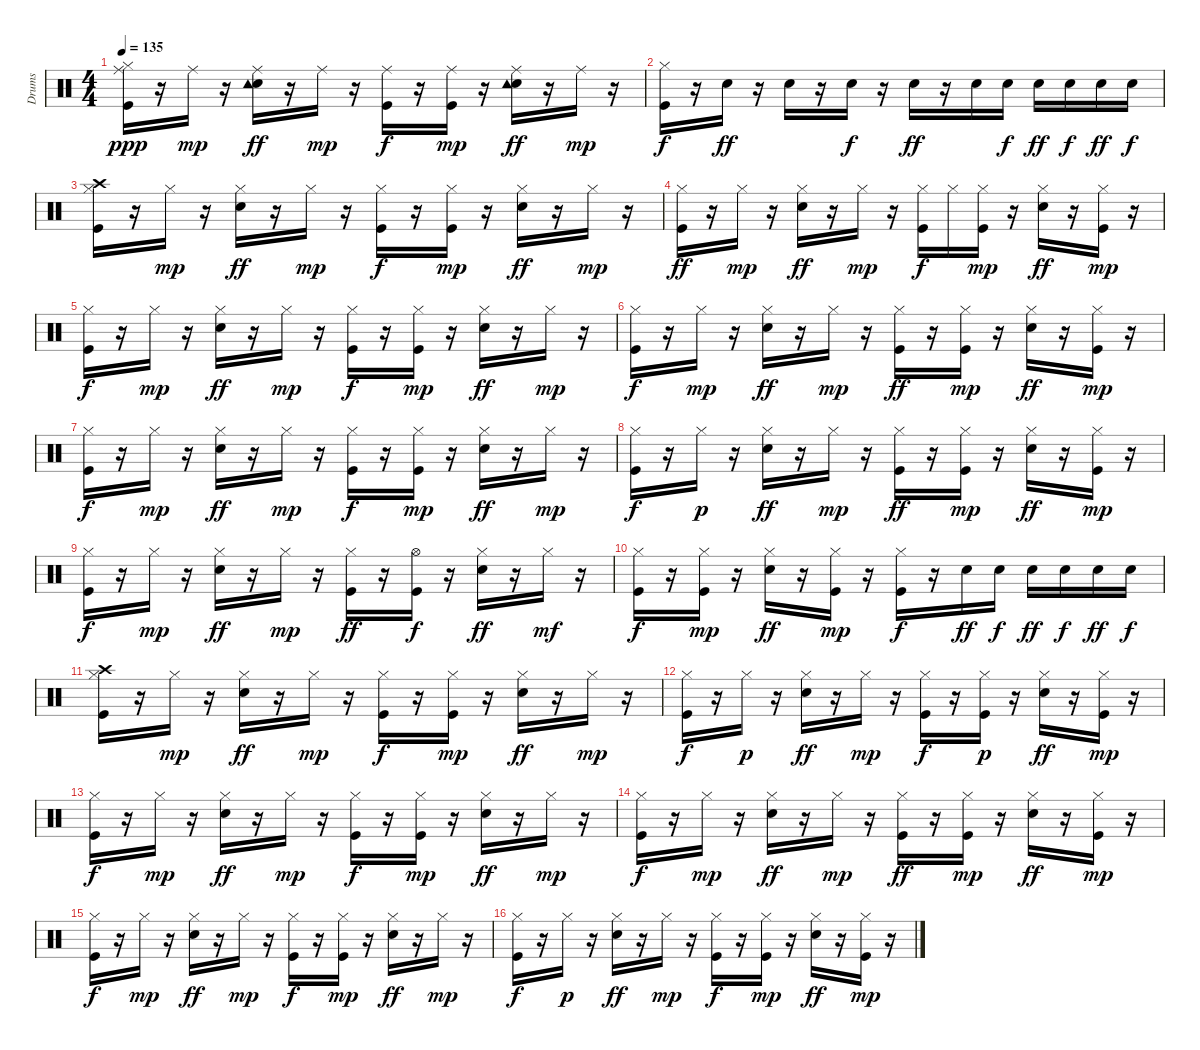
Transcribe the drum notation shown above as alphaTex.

\track ("Drums   " "Drums   ") {instrument percussion}
\staff {score}
\articulation defaults
\ts (4 4)
\tempo 135
\clef neutral
\ks c
("Kick (hit)" "Hi-Hat (closed)" "Ride (middle)").16{dy ppp} r.16 "Ride (middle)".16{dy mp} r.16 ("Snare (hit) 2" "Ride (middle)" "Tambourine (hit)").16{dy ff} r.16 "Ride (middle)".16{dy mp} r.16 ("Kick (hit)" "Ride (middle)").16{dy f} r.16 ("Kick (hit)" "Ride (middle)").16{dy mp} r.16 ("Snare (hit) 2" "Ride (middle)" "Tambourine (hit)").16{dy ff} r.16 "Ride (middle)".16{dy mp} r.16 |
("Kick (hit)" "Hi-Hat (closed)").16{dy f} r.16 "Snare (hit) 2".16{dy ff} r.16 "Snare (hit) 2".16 r.16 "Snare (hit) 2".16{dy f} r.16 "Snare (hit) 2".16{dy ff} r.16 "Snare (hit) 2".16 "Snare (hit) 2".16{dy f} "Snare (hit) 2".16{dy ff} "Snare (hit) 2".16{dy f} "Snare (hit) 2".16{dy ff} "Snare (hit) 2".16{dy f} |
("Kick (hit)" "Hi-Hat (closed)" "Crash high (hit)").16 r.16 "Hi-Hat (closed)".16{dy mp} r.16 ("Snare (hit) 2" "Hi-Hat (closed)").16{dy ff} r.16 "Hi-Hat (closed)".16{dy mp} r.16 ("Kick (hit)" "Hi-Hat (closed)").16{dy f} r.16 ("Kick (hit)" "Hi-Hat (closed)").16{dy mp} r.16 ("Snare (hit) 2" "Hi-Hat (closed)").16{dy ff} r.16 "Hi-Hat (closed)".16{dy mp} r.16 |
("Kick (hit)" "Hi-Hat (closed)").16{dy ff} r.16 "Hi-Hat (closed)".16{dy mp} r.16 ("Snare (hit) 2" "Hi-Hat (closed)").16{dy ff} r.16 "Hi-Hat (closed)".16{dy mp} r.16 ("Kick (hit)" "Hi-Hat (closed)").16{dy f} "Hi-Hat (closed)".16 ("Kick (hit)" "Hi-Hat (closed)").16{dy mp} r.16 ("Snare (hit) 2" "Hi-Hat (closed)").16{dy ff} r.16 ("Kick (hit)" "Hi-Hat (closed)").16{dy mp} r.16 |
("Kick (hit)" "Hi-Hat (closed)").16{dy f} r.16 "Hi-Hat (closed)".16{dy mp} r.16 ("Snare (hit) 2" "Hi-Hat (closed)").16{dy ff} r.16 "Hi-Hat (closed)".16{dy mp} r.16 ("Kick (hit)" "Hi-Hat (closed)").16{dy f} r.16 ("Kick (hit)" "Hi-Hat (closed)").16{dy mp} r.16 ("Snare (hit) 2" "Hi-Hat (closed)").16{dy ff} r.16 "Hi-Hat (closed)".16{dy mp} r.16 |
("Kick (hit)" "Hi-Hat (closed)").16{dy f} r.16 "Hi-Hat (closed)".16{dy mp} r.16 ("Snare (hit) 2" "Hi-Hat (closed)").16{dy ff} r.16 "Hi-Hat (closed)".16{dy mp} r.16 ("Kick (hit)" "Hi-Hat (closed)").16{dy ff} r.16 ("Kick (hit)" "Hi-Hat (closed)").16{dy mp} r.16 ("Snare (hit) 2" "Hi-Hat (closed)").16{dy ff} r.16 ("Kick (hit)" "Hi-Hat (closed)").16{dy mp} r.16 |
("Kick (hit)" "Hi-Hat (closed)").16{dy f} r.16 "Hi-Hat (closed)".16{dy mp} r.16 ("Snare (hit) 2" "Hi-Hat (closed)").16{dy ff} r.16 "Hi-Hat (closed)".16{dy mp} r.16 ("Kick (hit)" "Hi-Hat (closed)").16{dy f} r.16 ("Kick (hit)" "Hi-Hat (closed)").16{dy mp} r.16 ("Snare (hit) 2" "Hi-Hat (closed)").16{dy ff} r.16 "Hi-Hat (closed)".16{dy mp} r.16 |
("Kick (hit)" "Hi-Hat (closed)").16{dy f} r.16 "Hi-Hat (closed)".16{dy p} r.16 ("Snare (hit) 2" "Hi-Hat (closed)").16{dy ff} r.16 "Hi-Hat (closed)".16{dy mp} r.16 ("Kick (hit)" "Hi-Hat (closed)").16{dy ff} r.16 ("Kick (hit)" "Hi-Hat (closed)").16{dy mp} r.16 ("Snare (hit) 2" "Hi-Hat (closed)").16{dy ff} r.16 ("Kick (hit)" "Hi-Hat (closed)").16{dy mp} r.16 |
("Kick (hit)" "Hi-Hat (closed)").16{dy f} r.16 "Hi-Hat (closed)".16{dy mp} r.16 ("Snare (hit) 2" "Hi-Hat (closed)").16{dy ff} r.16 "Hi-Hat (closed)".16{dy mp} r.16 ("Kick (hit)" "Hi-Hat (closed)").16{dy ff} r.16 ("Kick (hit)" "Hi-Hat (open)").16{dy f} r.16 ("Snare (hit) 2" "Hi-Hat (closed)").16{dy ff} r.16 "Hi-Hat (closed)".16{dy mf} r.16 |
("Kick (hit)" "Hi-Hat (closed)").16{dy f} r.16 ("Kick (hit)" "Hi-Hat (closed)").16{dy mp} r.16 ("Snare (hit) 2" "Hi-Hat (closed)").16{dy ff} r.16 ("Kick (hit)" "Hi-Hat (closed)").16{dy mp} r.16 ("Kick (hit)" "Hi-Hat (closed)").16{dy f} r.16 "Snare (hit) 2".16{dy ff} "Snare (hit) 2".16{dy f} "Snare (hit) 2".16{dy ff} "Snare (hit) 2".16{dy f} "Snare (hit) 2".16{dy ff} "Snare (hit) 2".16{dy f} |
("Kick (hit)" "Hi-Hat (closed)" "Crash high (hit)").16 r.16 "Hi-Hat (closed)".16{dy mp} r.16 ("Snare (hit) 2" "Hi-Hat (closed)").16{dy ff} r.16 "Hi-Hat (closed)".16{dy mp} r.16 ("Kick (hit)" "Hi-Hat (closed)").16{dy f} r.16 ("Kick (hit)" "Hi-Hat (closed)").16{dy mp} r.16 ("Snare (hit) 2" "Hi-Hat (closed)").16{dy ff} r.16 "Hi-Hat (closed)".16{dy mp} r.16 |
("Kick (hit)" "Hi-Hat (closed)").16{dy f} r.16 "Hi-Hat (closed)".16{dy p} r.16 ("Snare (hit) 2" "Hi-Hat (closed)").16{dy ff} r.16 "Hi-Hat (closed)".16{dy mp} r.16 ("Kick (hit)" "Hi-Hat (closed)").16{dy f} r.16 ("Kick (hit)" "Hi-Hat (closed)").16{dy p} r.16 ("Snare (hit) 2" "Hi-Hat (closed)").16{dy ff} r.16 ("Kick (hit)" "Hi-Hat (closed)").16{dy mp} r.16 |
("Kick (hit)" "Hi-Hat (closed)").16{dy f} r.16 "Hi-Hat (closed)".16{dy mp} r.16 ("Snare (hit) 2" "Hi-Hat (closed)").16{dy ff} r.16 "Hi-Hat (closed)".16{dy mp} r.16 ("Kick (hit)" "Hi-Hat (closed)").16{dy f} r.16 ("Kick (hit)" "Hi-Hat (closed)").16{dy mp} r.16 ("Snare (hit) 2" "Hi-Hat (closed)").16{dy ff} r.16 "Hi-Hat (closed)".16{dy mp} r.16 |
("Kick (hit)" "Hi-Hat (closed)").16{dy f} r.16 "Hi-Hat (closed)".16{dy mp} r.16 ("Snare (hit) 2" "Hi-Hat (closed)").16{dy ff} r.16 "Hi-Hat (closed)".16{dy mp} r.16 ("Kick (hit)" "Hi-Hat (closed)").16{dy ff} r.16 ("Kick (hit)" "Hi-Hat (closed)").16{dy mp} r.16 ("Snare (hit) 2" "Hi-Hat (closed)").16{dy ff} r.16 ("Kick (hit)" "Hi-Hat (closed)").16{dy mp} r.16 |
("Kick (hit)" "Hi-Hat (closed)").16{dy f} r.16 "Hi-Hat (closed)".16{dy mp} r.16 ("Snare (hit) 2" "Hi-Hat (closed)").16{dy ff} r.16 "Hi-Hat (closed)".16{dy mp} r.16 ("Kick (hit)" "Hi-Hat (closed)").16{dy f} r.16 ("Kick (hit)" "Hi-Hat (closed)").16{dy mp} r.16 ("Snare (hit) 2" "Hi-Hat (closed)").16{dy ff} r.16 "Hi-Hat (closed)".16{dy mp} r.16 |
("Kick (hit)" "Hi-Hat (closed)").16{dy f} r.16 "Hi-Hat (closed)".16{dy p} r.16 ("Snare (hit) 2" "Hi-Hat (closed)").16{dy ff} r.16 "Hi-Hat (closed)".16{dy mp} r.16 ("Kick (hit)" "Hi-Hat (closed)").16{dy f} r.16 ("Kick (hit)" "Hi-Hat (closed)").16{dy mp} r.16 ("Snare (hit) 2" "Hi-Hat (closed)").16{dy ff} r.16 ("Kick (hit)" "Hi-Hat (closed)").16{dy mp} r.16
